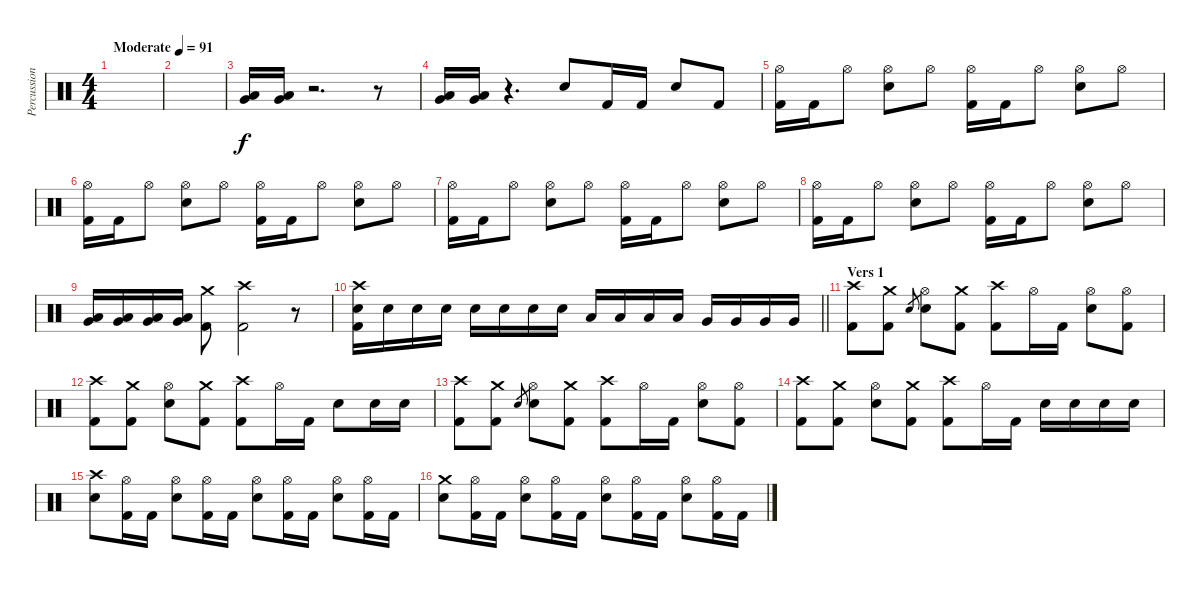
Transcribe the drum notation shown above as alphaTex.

\track ("Percussion" "Percussion") {instrument percussion}
\staff {score}
\articulation defaults
\ts (4 4)
\tempo (91 "Moderate")
\clef neutral
\ks c
|
|
("Very Low Tom (hit)" "Low Floor Tom (hit)").16 ("Very Low Tom (hit)" "Low Floor Tom (hit)").16 r.2{d} r.8 |
("Very Low Tom (hit)" "Low Floor Tom (hit)").16 ("Very Low Tom (hit)" "Low Floor Tom (hit)").16 r.4{d} "Snare (hit) 2".8 "Kick (hit) 2".16 "Kick (hit) 2".16 "Snare (hit) 2".8 "Kick (hit) 2".8 |
("Hi-Hat (open)" "Kick (hit) 2").16 "Kick (hit) 2".16 "Hi-Hat (open)".8 ("Snare (hit) 2" "Hi-Hat (open)").8 "Hi-Hat (open)".8 ("Hi-Hat (open)" "Kick (hit) 2").16 "Kick (hit) 2".16 "Hi-Hat (open)".8 ("Snare (hit) 2" "Hi-Hat (open)").8 "Hi-Hat (open)".8 |
("Hi-Hat (open)" "Kick (hit) 2").16 "Kick (hit) 2".16 "Hi-Hat (open)".8 ("Snare (hit) 2" "Hi-Hat (open)").8 "Hi-Hat (open)".8 ("Hi-Hat (open)" "Kick (hit) 2").16 "Kick (hit) 2".16 "Hi-Hat (open)".8 ("Snare (hit) 2" "Hi-Hat (open)").8 "Hi-Hat (open)".8 |
("Hi-Hat (open)" "Kick (hit) 2").16 "Kick (hit) 2".16 "Hi-Hat (open)".8 ("Snare (hit) 2" "Hi-Hat (open)").8 "Hi-Hat (open)".8 ("Hi-Hat (open)" "Kick (hit) 2").16 "Kick (hit) 2".16 "Hi-Hat (open)".8 ("Snare (hit) 2" "Hi-Hat (open)").8 "Hi-Hat (open)".8 |
("Hi-Hat (open)" "Kick (hit) 2").16 "Kick (hit) 2".16 "Hi-Hat (open)".8 ("Snare (hit) 2" "Hi-Hat (open)").8 "Hi-Hat (open)".8 ("Hi-Hat (open)" "Kick (hit) 2").16 "Kick (hit) 2".16 "Hi-Hat (open)".8 ("Snare (hit) 2" "Hi-Hat (open)").8 "Hi-Hat (open)".8 |
("Very Low Tom (hit)" "Low Floor Tom (hit)").16 ("Very Low Tom (hit)" "Low Floor Tom (hit)").16 ("Very Low Tom (hit)" "Low Floor Tom (hit)").16 ("Very Low Tom (hit)" "Low Floor Tom (hit)").16 ("Crash medium (hit)" "Kick (hit) 2").8 ("Crash high (hit)" "Kick (hit) 2").2 r.8 |
\barLineRight lightlight
("Snare (hit) 2" "Crash high (hit)" "Kick (hit) 2").16 "Snare (hit) 2".16 "Snare (hit) 2".16 "Snare (hit) 2".16 "Snare (hit) 2".16 "Snare (hit) 2".16 "Snare (hit) 2".16 "Snare (hit) 2".16 "Low Tom (hit)".16 "Low Tom (hit)".16 "Low Tom (hit)".16 "Low Tom (hit)".16 "Very Low Tom (hit)".16 "Very Low Tom (hit)".16 "Very Low Tom (hit)".16 "Very Low Tom (hit)".16 |
\section ("" "Vers 1")
("Crash high (hit)" "Kick (hit) 2").8 ("Crash medium (hit)" "Kick (hit) 2").8 "Snare (hit) 2".8{gr} ("Snare (hit) 2" "Hi-Hat (open)").8 ("Crash medium (hit)" "Kick (hit) 2").8 ("Crash high (hit)" "Kick (hit) 2").8 "Hi-Hat (open)".16 "Kick (hit) 2".16 ("Snare (hit) 2" "Hi-Hat (open)").8 ("Hi-Hat (open)" "Kick (hit) 2").8 |
("Crash high (hit)" "Kick (hit) 2").8 ("Crash medium (hit)" "Kick (hit) 2").8 ("Snare (hit) 2" "Hi-Hat (open)").8 ("Crash medium (hit)" "Kick (hit) 2").8 ("Crash high (hit)" "Kick (hit) 2").8 "Hi-Hat (open)".16 "Kick (hit) 2".16 "Snare (hit) 2".8 "Snare (hit) 2".16 "Snare (hit) 2".16 |
("Crash high (hit)" "Kick (hit) 2").8 ("Crash medium (hit)" "Kick (hit) 2").8 "Snare (hit) 2".8{gr} ("Snare (hit) 2" "Hi-Hat (open)").8 ("Crash medium (hit)" "Kick (hit) 2").8 ("Crash high (hit)" "Kick (hit) 2").8 "Hi-Hat (open)".16 "Kick (hit) 2".16 ("Snare (hit) 2" "Hi-Hat (open)").8 ("Hi-Hat (open)" "Kick (hit) 2").8 |
("Crash high (hit)" "Kick (hit) 2").8 ("Crash medium (hit)" "Kick (hit) 2").8 ("Snare (hit) 2" "Hi-Hat (open)").8 ("Crash medium (hit)" "Kick (hit) 2").8 ("Crash high (hit)" "Kick (hit) 2").8 "Hi-Hat (open)".16 "Kick (hit) 2".16 "Snare (hit) 2".16 "Snare (hit) 2".16 "Snare (hit) 2".16 "Snare (hit) 2".16 |
("Snare (hit) 2" "Crash high (hit)").8 ("Hi-Hat (open)" "Kick (hit) 2").16 "Kick (hit) 2".16 ("Snare (hit) 2" "Hi-Hat (open)").8 ("Hi-Hat (open)" "Kick (hit) 2").16 "Kick (hit) 2".16 ("Snare (hit) 2" "Hi-Hat (open)").8 ("Hi-Hat (open)" "Kick (hit) 2").16 "Kick (hit) 2".16 ("Snare (hit) 2" "Hi-Hat (open)").8 ("Hi-Hat (open)" "Kick (hit) 2").16 "Kick (hit) 2".16 |
("Snare (hit) 2" "Crash medium (hit)").8 ("Hi-Hat (open)" "Kick (hit) 2").16 "Kick (hit) 2".16 ("Snare (hit) 2" "Hi-Hat (open)").8 ("Hi-Hat (open)" "Kick (hit) 2").16 "Kick (hit) 2".16 ("Snare (hit) 2" "Hi-Hat (open)").8 ("Hi-Hat (open)" "Kick (hit) 2").16 "Kick (hit) 2".16 ("Snare (hit) 2" "Hi-Hat (open)").8 ("Hi-Hat (open)" "Kick (hit) 2").16 "Kick (hit) 2".16
